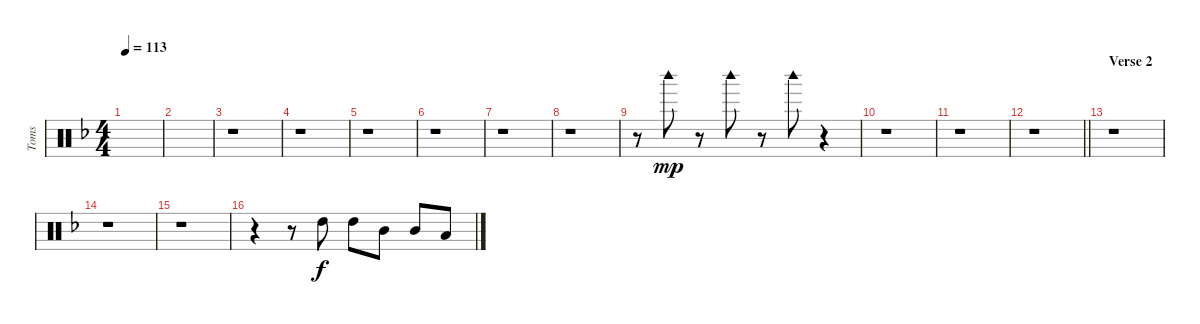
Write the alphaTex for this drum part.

\track ("Toms" "Toms") {instrument percussion}
\staff {score}
\articulation defaults
\ts (4 4)
\tempo 113
\clef neutral
\ks dminor
|
|
r.1 |
r.1 |
r.1 |
r.1 |
r.1 |
r.1 |
r.8 "Woodblock high (hit)".8{dy mp} r.8 "Woodblock high (hit)".8 r.8 "Woodblock high (hit)".8 r.4 |
r.1 |
r.1 |
\barLineRight lightlight
r.1 |
\section ("" "Verse 2")
r.1 |
r.1 |
r.1 |
r.4 r.8 "High Tom (hit)".8{dy f} "High Tom (hit)".8 "Mid Tom (hit)".8 "Mid Tom (hit)".8 "Low Tom (hit)".8
